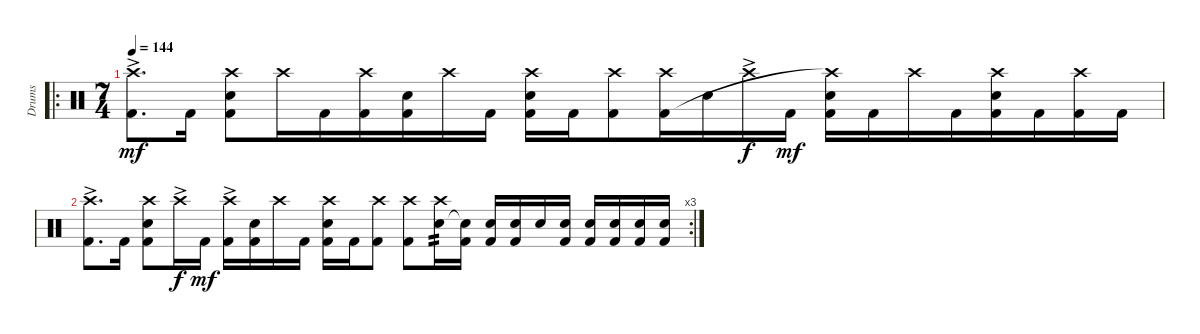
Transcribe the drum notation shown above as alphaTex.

\track ("Drums" "Drums") {instrument percussion}
\staff {score}
\articulation defaults
\ro
\ts (7 4)
\tempo 144
\clef neutral
\ks c
("Kick (hit) 2" "Crash high (hit)"{ac}).8{d dy mf} "Kick (hit) 2".16 ("Kick (hit) 2" "Snare (hit) 2" "Crash high (hit)").8 "Crash high (hit)".16 "Kick (hit) 2".16{beam merge} ("Crash high (hit)" "Kick (hit) 2").16 ("Kick (hit) 2" "Snare (hit) 2").16 "Crash high (hit)".16 "Kick (hit) 2".16 ("Kick (hit) 2" "Snare (hit) 2" "Crash high (hit)").16 "Kick (hit) 2".16 ("Kick (hit) 2" "Crash high (hit)").8{beam merge} ("Crash high (hit)" "Kick (hit) 2").16 "Snare (hit) 2".16 "Crash high (hit)"{ac}.16{dy f} "Kick (hit) 2".16{dy mf} ("Kick (hit) 2" "Crash high (hit)"{t} "Snare (hit) 2").16 "Kick (hit) 2".16 "Crash high (hit)".16 "Kick (hit) 2".16{beam merge} ("Crash high (hit)" "Snare (hit) 2" "Kick (hit) 2").16 "Kick (hit) 2".16 ("Kick (hit) 2" "Crash high (hit)").16 "Kick (hit) 2".16 |
\rc 3
("Kick (hit) 2" "Crash high (hit)"{ac}).8{d} "Kick (hit) 2".16 ("Kick (hit) 2" "Snare (hit) 2" "Crash high (hit)").8 "Crash high (hit)"{ac}.16{dy f} "Kick (hit) 2".16{dy mf} ("Kick (hit) 2" "Crash high (hit)"{ac}).16 ("Kick (hit) 2" "Snare (hit) 2").16 "Crash high (hit)".16 "Kick (hit) 2".16 ("Kick (hit) 2" "Snare (hit) 2" "Crash high (hit)").16 "Kick (hit) 2".16 ("Kick (hit) 2" "Crash high (hit)").8 ("Crash high (hit)" "Kick (hit) 2").8 ("Crash high (hit)" "Snare (hit) 2").16{tp 2} ("Kick (hit) 2" "Snare (hit) 2"{t}).16 ("Snare (hit) 2" "Kick (hit) 2").16 ("Snare (hit) 2" "Kick (hit) 2").16 "Snare (hit) 2".16 ("Snare (hit) 2" "Kick (hit) 2").16 ("Snare (hit) 2" "Kick (hit) 2").16 ("Snare (hit) 2" "Kick (hit) 2").16 ("Snare (hit) 2" "Kick (hit) 2").16 ("Snare (hit) 2" "Kick (hit) 2").16
